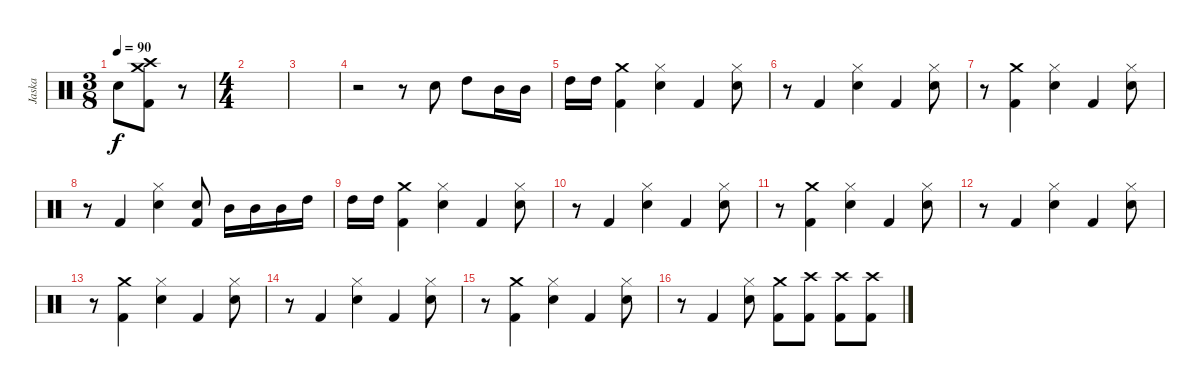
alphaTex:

\track ("Jaska" "Jaska") {instrument percussion}
\staff {score}
\articulation defaults
\ts (3 8)
\tempo 90
\clef neutral
\ks c "Electric Snare (hit)".8{dy f}
("Kick (hit) 2" "Crash medium (hit)" "Crash high (hit)").8 r.8 |
\ts (4 4)
|
|
r.2 r.8 "Electric Snare (hit)".8 "High Tom (hit)".8 "Mid Tom (hit)".16 "Mid Tom (hit)".16 |
"High Tom (hit)".16 "High Tom (hit)".16 ("Kick (hit) 2" "Crash medium (hit)").4 ("Electric Snare (hit)" "Hi-Hat (closed)").4 "Kick (hit) 2".4 ("Electric Snare (hit)" "Hi-Hat (closed)").8 |
r.8 "Kick (hit) 2".4 ("Electric Snare (hit)" "Hi-Hat (closed)").4 "Kick (hit) 2".4 ("Electric Snare (hit)" "Hi-Hat (closed)").8 |
r.8 ("Kick (hit) 2" "Crash medium (hit)").4 ("Electric Snare (hit)" "Hi-Hat (closed)").4 "Kick (hit) 2".4 ("Electric Snare (hit)" "Hi-Hat (closed)").8 |
r.8 "Kick (hit) 2".4 ("Electric Snare (hit)" "Hi-Hat (closed)").4 ("Kick (hit) 2" "Electric Snare (hit)").8 "Mid Tom (hit)".16 "Mid Tom (hit)".16 "Mid Tom (hit)".16 "High Tom (hit)".16 |
"High Tom (hit)".16 "High Tom (hit)".16 ("Kick (hit) 2" "Crash medium (hit)").4 ("Electric Snare (hit)" "Hi-Hat (closed)").4 "Kick (hit) 2".4 ("Electric Snare (hit)" "Hi-Hat (closed)").8 |
r.8 "Kick (hit) 2".4 ("Electric Snare (hit)" "Hi-Hat (closed)").4 "Kick (hit) 2".4 ("Electric Snare (hit)" "Hi-Hat (closed)").8 |
r.8 ("Kick (hit) 2" "Crash medium (hit)").4 ("Electric Snare (hit)" "Hi-Hat (closed)").4 "Kick (hit) 2".4 ("Electric Snare (hit)" "Hi-Hat (closed)").8 |
r.8 "Kick (hit) 2".4 ("Electric Snare (hit)" "Hi-Hat (closed)").4 "Kick (hit) 2".4 ("Electric Snare (hit)" "Hi-Hat (closed)").8 |
r.8 ("Kick (hit) 2" "Crash medium (hit)").4 ("Electric Snare (hit)" "Hi-Hat (closed)").4 "Kick (hit) 2".4 ("Electric Snare (hit)" "Hi-Hat (closed)").8 |
r.8 "Kick (hit) 2".4 ("Electric Snare (hit)" "Hi-Hat (closed)").4 "Kick (hit) 2".4 ("Electric Snare (hit)" "Hi-Hat (closed)").8 |
r.8 ("Kick (hit) 2" "Crash medium (hit)").4 ("Electric Snare (hit)" "Hi-Hat (closed)").4 "Kick (hit) 2".4 ("Electric Snare (hit)" "Hi-Hat (closed)").8 |
r.8 "Kick (hit) 2".4 ("Electric Snare (hit)" "Hi-Hat (closed)").8 ("Kick (hit) 2" "Crash medium (hit)").8 ("Kick (hit) 2" "Crash high (hit)").8 ("Kick (hit) 2" "Crash high (hit)").8 ("Kick (hit) 2" "Crash high (hit)").8
